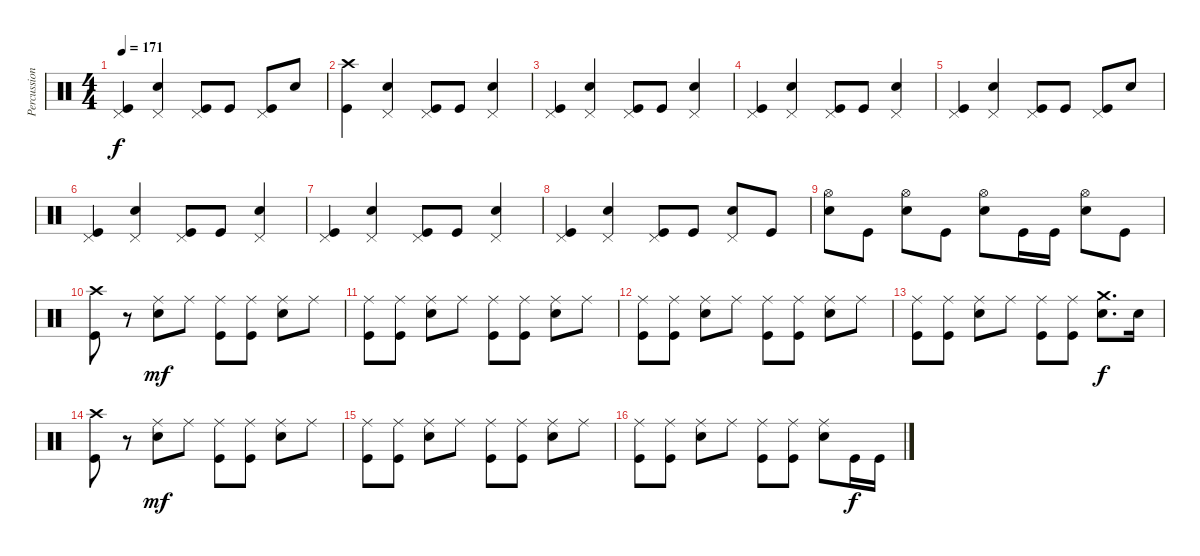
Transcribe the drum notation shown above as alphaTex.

\track ("Percussion" "Percussion") {instrument percussion}
\staff {score}
\articulation defaults
\ts (4 4)
\tempo 171
\clef neutral
\ks c
("Pedal Hi-Hat (hit)" "Kick (hit)").4{dy f} ("Pedal Hi-Hat (hit)" "Electric Snare (hit)").4 ("Pedal Hi-Hat (hit)" "Kick (hit)").8 "Kick (hit)".8 ("Pedal Hi-Hat (hit)" "Kick (hit)").8 "Electric Snare (hit)".8 |
("Crash high (hit)" "Kick (hit)").4 ("Pedal Hi-Hat (hit)" "Electric Snare (hit)").4 ("Pedal Hi-Hat (hit)" "Kick (hit)").8 "Kick (hit)".8 ("Pedal Hi-Hat (hit)" "Electric Snare (hit)").4 |
("Pedal Hi-Hat (hit)" "Kick (hit)").4 ("Pedal Hi-Hat (hit)" "Electric Snare (hit)").4 ("Pedal Hi-Hat (hit)" "Kick (hit)").8 "Kick (hit)".8 ("Pedal Hi-Hat (hit)" "Electric Snare (hit)").4 |
("Pedal Hi-Hat (hit)" "Kick (hit)").4 ("Pedal Hi-Hat (hit)" "Electric Snare (hit)").4 ("Pedal Hi-Hat (hit)" "Kick (hit)").8 "Kick (hit)".8 ("Pedal Hi-Hat (hit)" "Electric Snare (hit)").4 |
("Pedal Hi-Hat (hit)" "Kick (hit)").4 ("Pedal Hi-Hat (hit)" "Electric Snare (hit)").4 ("Pedal Hi-Hat (hit)" "Kick (hit)").8 "Kick (hit)".8 ("Pedal Hi-Hat (hit)" "Kick (hit)").8 "Electric Snare (hit)".8 |
("Pedal Hi-Hat (hit)" "Kick (hit)").4 ("Pedal Hi-Hat (hit)" "Electric Snare (hit)").4 ("Pedal Hi-Hat (hit)" "Kick (hit)").8 "Kick (hit)".8 ("Pedal Hi-Hat (hit)" "Electric Snare (hit)").4 |
("Pedal Hi-Hat (hit)" "Kick (hit)").4 ("Pedal Hi-Hat (hit)" "Electric Snare (hit)").4 ("Pedal Hi-Hat (hit)" "Kick (hit)").8 "Kick (hit)".8 ("Pedal Hi-Hat (hit)" "Electric Snare (hit)").4 |
("Pedal Hi-Hat (hit)" "Kick (hit)").4 ("Pedal Hi-Hat (hit)" "Electric Snare (hit)").4 ("Pedal Hi-Hat (hit)" "Kick (hit)").8 "Kick (hit)".8 ("Pedal Hi-Hat (hit)" "Electric Snare (hit)").8 "Kick (hit)".8 |
("Hi-Hat (open)" "Electric Snare (hit)").8 "Kick (hit)".8 ("Hi-Hat (open)" "Electric Snare (hit)").8 "Kick (hit)".8 ("Hi-Hat (open)" "Electric Snare (hit)").8 "Kick (hit)".16 "Kick (hit)".16 ("Hi-Hat (open)" "Electric Snare (hit)").8 "Kick (hit)".8 |
("Crash high (hit)" "Kick (hit)").8 r.8 ("Ride (middle)" "Electric Snare (hit)").8{dy mf} "Ride (middle)".8 ("Ride (middle)" "Kick (hit)").8 ("Ride (middle)" "Kick (hit)").8 ("Ride (middle)" "Electric Snare (hit)").8 "Ride (middle)".8 |
("Ride (middle)" "Kick (hit)").8 ("Ride (middle)" "Kick (hit)").8 ("Ride (middle)" "Electric Snare (hit)").8 "Ride (middle)".8 ("Ride (middle)" "Kick (hit)").8 ("Ride (middle)" "Kick (hit)").8 ("Ride (middle)" "Electric Snare (hit)").8 "Ride (middle)".8 |
("Ride (middle)" "Kick (hit)").8 ("Ride (middle)" "Kick (hit)").8 ("Ride (middle)" "Electric Snare (hit)").8 "Ride (middle)".8 ("Ride (middle)" "Kick (hit)").8 ("Ride (middle)" "Kick (hit)").8 ("Ride (middle)" "Electric Snare (hit)").8 "Ride (middle)".8 |
("Ride (middle)" "Kick (hit)").8 ("Ride (middle)" "Kick (hit)").8 ("Ride (middle)" "Electric Snare (hit)").8 "Ride (middle)".8 ("Ride (middle)" "Kick (hit)").8 ("Ride (middle)" "Kick (hit)").8 ("Crash medium (hit)" "Electric Snare (hit)").8{d dy f} "Electric Snare (hit)".16 |
("Crash high (hit)" "Kick (hit)").8 r.8 ("Ride (middle)" "Electric Snare (hit)").8{dy mf} "Ride (middle)".8 ("Ride (middle)" "Kick (hit)").8 ("Ride (middle)" "Kick (hit)").8 ("Ride (middle)" "Electric Snare (hit)").8 "Ride (middle)".8 |
("Ride (middle)" "Kick (hit)").8 ("Ride (middle)" "Kick (hit)").8 ("Ride (middle)" "Electric Snare (hit)").8 "Ride (middle)".8 ("Ride (middle)" "Kick (hit)").8 ("Ride (middle)" "Kick (hit)").8 ("Ride (middle)" "Electric Snare (hit)").8 "Ride (middle)".8 |
("Ride (middle)" "Kick (hit)").8 ("Ride (middle)" "Kick (hit)").8 ("Ride (middle)" "Electric Snare (hit)").8 "Ride (middle)".8 ("Ride (middle)" "Kick (hit)").8 ("Ride (middle)" "Kick (hit)").8 ("Ride (middle)" "Electric Snare (hit)").8 "Kick (hit)".16{dy f} "Kick (hit)".16
